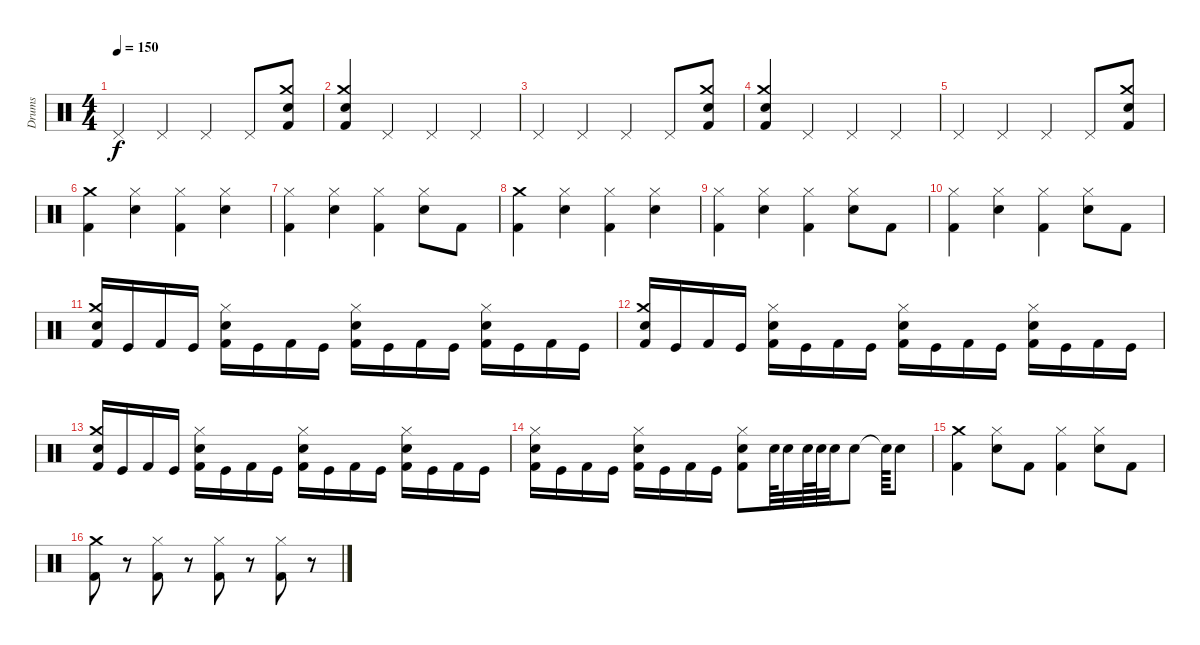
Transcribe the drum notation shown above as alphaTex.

\track ("Drums" "Drums") {instrument percussion}
\staff {score}
\articulation defaults
\ts (4 4)
\tempo 150
\clef neutral
\ks c "Pedal Hi-Hat (hit)".4{dy f} "Pedal Hi-Hat (hit)".4 "Pedal Hi-Hat (hit)".4 "Pedal Hi-Hat (hit)".8
("Snare (hit) 2" "Crash medium (hit)" "Kick (hit) 2").8 |
("Snare (hit) 2" "Crash medium (hit)" "Kick (hit) 2").4 "Pedal Hi-Hat (hit)".4 "Pedal Hi-Hat (hit)".4 "Pedal Hi-Hat (hit)".4 |
"Pedal Hi-Hat (hit)".4 "Pedal Hi-Hat (hit)".4 "Pedal Hi-Hat (hit)".4 "Pedal Hi-Hat (hit)".8 ("Snare (hit) 2" "Crash medium (hit)" "Kick (hit) 2").8 |
("Snare (hit) 2" "Crash medium (hit)" "Kick (hit) 2").4 "Pedal Hi-Hat (hit)".4 "Pedal Hi-Hat (hit)".4 "Pedal Hi-Hat (hit)".4 |
"Pedal Hi-Hat (hit)".4 "Pedal Hi-Hat (hit)".4 "Pedal Hi-Hat (hit)".4 "Pedal Hi-Hat (hit)".8 ("Snare (hit) 2" "Crash medium (hit)" "Kick (hit) 2").8 |
("Kick (hit) 2" "Crash medium (hit)").4 ("Hi-Hat (closed)" "Snare (hit) 2").4 ("Kick (hit) 2" "Hi-Hat (closed)").4 ("Snare (hit) 2" "Hi-Hat (closed)").4 |
("Hi-Hat (closed)" "Kick (hit) 2").4 ("Snare (hit) 2" "Hi-Hat (closed)").4 ("Kick (hit) 2" "Hi-Hat (closed)").4 ("Hi-Hat (closed)" "Snare (hit) 2").8 "Kick (hit) 2".8 |
("Kick (hit) 2" "Crash medium (hit)").4 ("Hi-Hat (closed)" "Snare (hit) 2").4 ("Kick (hit) 2" "Hi-Hat (closed)").4 ("Snare (hit) 2" "Hi-Hat (closed)").4 |
("Hi-Hat (closed)" "Kick (hit) 2").4 ("Snare (hit) 2" "Hi-Hat (closed)").4 ("Kick (hit) 2" "Hi-Hat (closed)").4 ("Hi-Hat (closed)" "Snare (hit) 2").8 "Kick (hit) 2".8 |
("Hi-Hat (closed)" "Kick (hit) 2").4 ("Snare (hit) 2" "Hi-Hat (closed)").4 ("Kick (hit) 2" "Hi-Hat (closed)").4 ("Hi-Hat (closed)" "Snare (hit) 2").8 "Kick (hit) 2".8 |
("Snare (hit) 2" "Crash medium (hit)" "Kick (hit) 2").16 "Kick (hit)".16 "Kick (hit) 2".16 "Kick (hit)".16 ("Hi-Hat (closed)" "Snare (hit) 2" "Kick (hit) 2").16 "Kick (hit)".16 "Kick (hit) 2".16 "Kick (hit)".16 ("Hi-Hat (closed)" "Snare (hit) 2" "Kick (hit) 2").16 "Kick (hit)".16 "Kick (hit) 2".16 "Kick (hit)".16 ("Snare (hit) 2" "Hi-Hat (closed)" "Kick (hit) 2").16 "Kick (hit)".16 "Kick (hit) 2".16 "Kick (hit)".16 |
("Snare (hit) 2" "Crash medium (hit)" "Kick (hit) 2").16 "Kick (hit)".16 "Kick (hit) 2".16 "Kick (hit)".16 ("Hi-Hat (closed)" "Snare (hit) 2" "Kick (hit) 2").16 "Kick (hit)".16 "Kick (hit) 2".16 "Kick (hit)".16 ("Hi-Hat (closed)" "Snare (hit) 2" "Kick (hit) 2").16 "Kick (hit)".16 "Kick (hit) 2".16 "Kick (hit)".16 ("Snare (hit) 2" "Hi-Hat (closed)" "Kick (hit) 2").16 "Kick (hit)".16 "Kick (hit) 2".16 "Kick (hit)".16 |
("Snare (hit) 2" "Crash medium (hit)" "Kick (hit) 2").16 "Kick (hit)".16 "Kick (hit) 2".16 "Kick (hit)".16 ("Hi-Hat (closed)" "Snare (hit) 2" "Kick (hit) 2").16 "Kick (hit)".16 "Kick (hit) 2".16 "Kick (hit)".16 ("Hi-Hat (closed)" "Snare (hit) 2" "Kick (hit) 2").16 "Kick (hit)".16 "Kick (hit) 2".16 "Kick (hit)".16 ("Snare (hit) 2" "Hi-Hat (closed)" "Kick (hit) 2").16 "Kick (hit)".16 "Kick (hit) 2".16 "Kick (hit)".16 |
("Hi-Hat (closed)" "Snare (hit) 2" "Kick (hit) 2").16 "Kick (hit)".16 "Kick (hit) 2".16 "Kick (hit)".16 ("Snare (hit) 2" "Hi-Hat (closed)" "Kick (hit) 2").16 "Kick (hit)".16 "Kick (hit) 2".16 "Kick (hit)".16 ("Kick (hit) 2" "Hi-Hat (closed)" "Snare (hit) 2").8 "Snare (hit) 2".64 "Snare (hit) 2".32 "Snare (hit) 2".64 "Snare (hit) 2".64 "Snare (hit) 2".32 "Snare (hit) 2".8 "Snare (hit)"{t}.64 "Snare (hit) 2".8 |
("Kick (hit) 2" "Crash medium (hit)").4 ("Hi-Hat (closed)" "Snare (hit) 2").8 "Kick (hit) 2".8 ("Kick (hit) 2" "Hi-Hat (closed)").4 ("Hi-Hat (closed)" "Snare (hit) 2").8 "Kick (hit) 2".8 |
("Crash medium (hit)" "Kick (hit) 2").8 r.8 ("Hi-Hat (closed)" "Kick (hit) 2").8 r.8 ("Hi-Hat (closed)" "Kick (hit) 2").8 r.8 ("Hi-Hat (closed)" "Kick (hit) 2").8 r.8
